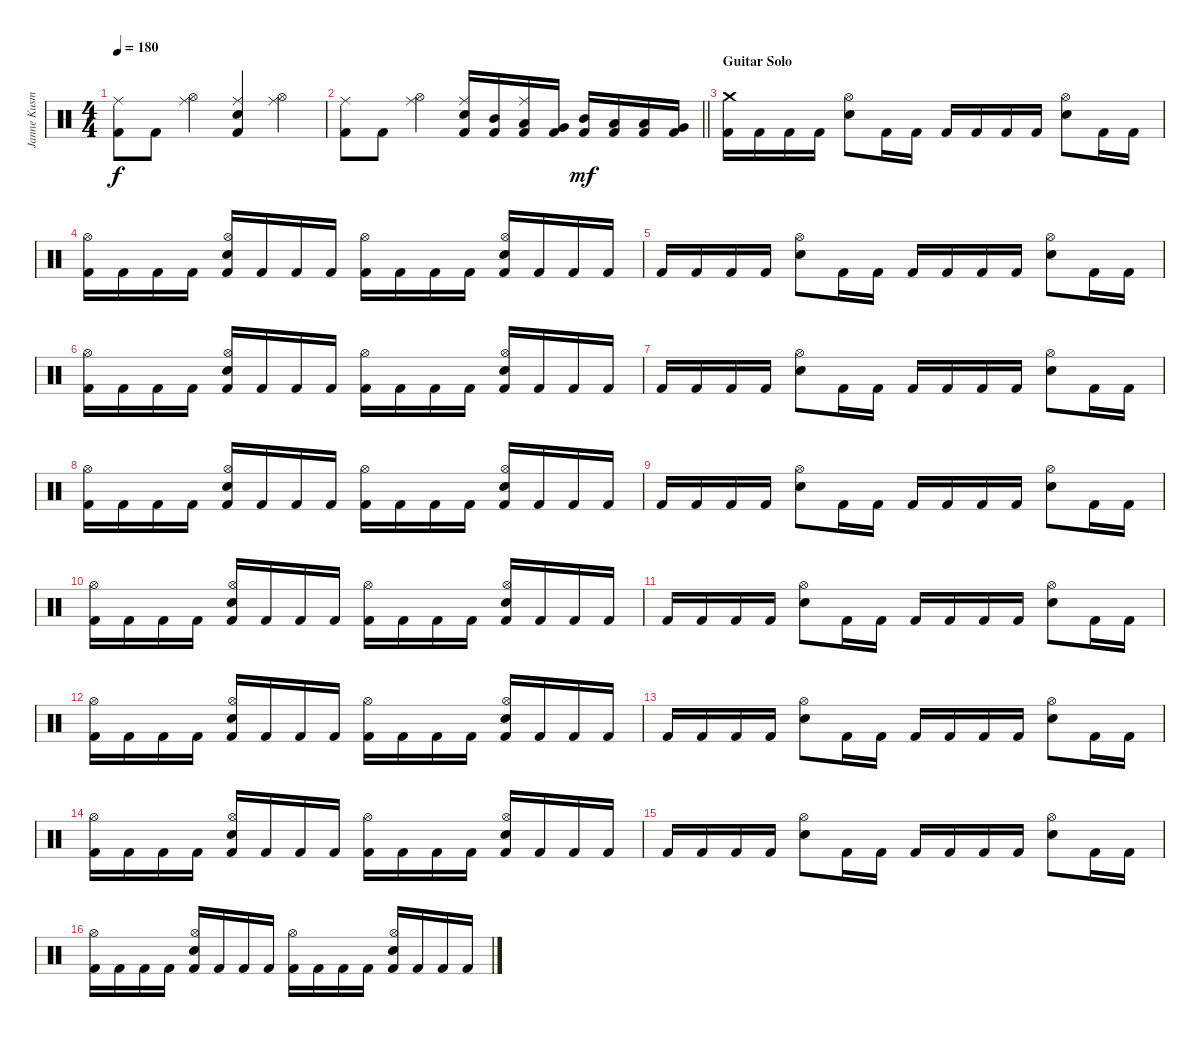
\track ("Janne Kusmin" "Janne Kusm") {instrument percussion}
\staff {score}
\articulation defaults
\ts (4 4)
\tempo 180
\clef neutral
\ks c
("Kick (hit) 2" "Ride (middle)").8{dy f} "Kick (hit) 2".8 ("Hi-Hat (open)" "Ride (middle)").4 ("Kick (hit) 2" "Electric Snare (hit)" "Ride (middle)").4 ("Hi-Hat (open)" "Ride (middle)").4 |
\barLineRight lightlight
("Kick (hit) 2" "Ride (middle)").8 "Kick (hit) 2".8 ("Hi-Hat (open)" "Ride (middle)").4 ("Electric Snare (hit)" "Kick (hit) 2" "Ride (middle)").16 ("Mid Tom (hit)" "Kick (hit) 2").16 ("Low Tom (hit)" "Kick (hit) 2" "Ride (middle)").16 ("Very Low Tom (hit)" "Kick (hit) 2").16 ("Mid Tom (hit)" "Kick (hit) 2").16{dy mf} ("Low Tom (hit)" "Kick (hit) 2").16 ("Low Tom (hit)" "Kick (hit) 2").16 ("Very Low Tom (hit)" "Kick (hit) 2").16 |
\section ("" "Guitar Solo")
("Kick (hit) 2" "Crash medium (hit)").16 "Kick (hit) 2".16 "Kick (hit) 2".16 "Kick (hit) 2".16 ("Electric Snare (hit)" "Hi-Hat (open)").8 "Kick (hit) 2".16 "Kick (hit) 2".16 "Kick (hit) 2".16 "Kick (hit) 2".16 "Kick (hit) 2".16 "Kick (hit) 2".16 ("Electric Snare (hit)" "Hi-Hat (open)").8 "Kick (hit) 2".16 "Kick (hit) 2".16 |
("Kick (hit) 2" "Hi-Hat (open)").16 "Kick (hit) 2".16 "Kick (hit) 2".16 "Kick (hit) 2".16 ("Kick (hit) 2" "Electric Snare (hit)" "Hi-Hat (open)").16 "Kick (hit) 2".16 "Kick (hit) 2".16 "Kick (hit) 2".16 ("Kick (hit) 2" "Hi-Hat (open)").16 "Kick (hit) 2".16 "Kick (hit) 2".16 "Kick (hit) 2".16 ("Kick (hit) 2" "Electric Snare (hit)" "Hi-Hat (open)").16 "Kick (hit) 2".16 "Kick (hit) 2".16 "Kick (hit) 2".16 |
"Kick (hit) 2".16 "Kick (hit) 2".16 "Kick (hit) 2".16 "Kick (hit) 2".16 ("Electric Snare (hit)" "Hi-Hat (open)").8 "Kick (hit) 2".16 "Kick (hit) 2".16 "Kick (hit) 2".16 "Kick (hit) 2".16 "Kick (hit) 2".16 "Kick (hit) 2".16 ("Electric Snare (hit)" "Hi-Hat (open)").8 "Kick (hit) 2".16 "Kick (hit) 2".16 |
("Kick (hit) 2" "Hi-Hat (open)").16 "Kick (hit) 2".16 "Kick (hit) 2".16 "Kick (hit) 2".16 ("Kick (hit) 2" "Electric Snare (hit)" "Hi-Hat (open)").16 "Kick (hit) 2".16 "Kick (hit) 2".16 "Kick (hit) 2".16 ("Kick (hit) 2" "Hi-Hat (open)").16 "Kick (hit) 2".16 "Kick (hit) 2".16 "Kick (hit) 2".16 ("Kick (hit) 2" "Electric Snare (hit)" "Hi-Hat (open)").16 "Kick (hit) 2".16 "Kick (hit) 2".16 "Kick (hit) 2".16 |
"Kick (hit) 2".16 "Kick (hit) 2".16 "Kick (hit) 2".16 "Kick (hit) 2".16 ("Electric Snare (hit)" "Hi-Hat (open)").8 "Kick (hit) 2".16 "Kick (hit) 2".16 "Kick (hit) 2".16 "Kick (hit) 2".16 "Kick (hit) 2".16 "Kick (hit) 2".16 ("Electric Snare (hit)" "Hi-Hat (open)").8 "Kick (hit) 2".16 "Kick (hit) 2".16 |
("Kick (hit) 2" "Hi-Hat (open)").16 "Kick (hit) 2".16 "Kick (hit) 2".16 "Kick (hit) 2".16 ("Kick (hit) 2" "Electric Snare (hit)" "Hi-Hat (open)").16 "Kick (hit) 2".16 "Kick (hit) 2".16 "Kick (hit) 2".16 ("Kick (hit) 2" "Hi-Hat (open)").16 "Kick (hit) 2".16 "Kick (hit) 2".16 "Kick (hit) 2".16 ("Kick (hit) 2" "Electric Snare (hit)" "Hi-Hat (open)").16 "Kick (hit) 2".16 "Kick (hit) 2".16 "Kick (hit) 2".16 |
"Kick (hit) 2".16 "Kick (hit) 2".16 "Kick (hit) 2".16 "Kick (hit) 2".16 ("Electric Snare (hit)" "Hi-Hat (open)").8 "Kick (hit) 2".16 "Kick (hit) 2".16 "Kick (hit) 2".16 "Kick (hit) 2".16 "Kick (hit) 2".16 "Kick (hit) 2".16 ("Electric Snare (hit)" "Hi-Hat (open)").8 "Kick (hit) 2".16 "Kick (hit) 2".16 |
("Kick (hit) 2" "Hi-Hat (open)").16 "Kick (hit) 2".16 "Kick (hit) 2".16 "Kick (hit) 2".16 ("Kick (hit) 2" "Electric Snare (hit)" "Hi-Hat (open)").16 "Kick (hit) 2".16 "Kick (hit) 2".16 "Kick (hit) 2".16 ("Kick (hit) 2" "Hi-Hat (open)").16 "Kick (hit) 2".16 "Kick (hit) 2".16 "Kick (hit) 2".16 ("Kick (hit) 2" "Electric Snare (hit)" "Hi-Hat (open)").16 "Kick (hit) 2".16 "Kick (hit) 2".16 "Kick (hit) 2".16 |
"Kick (hit) 2".16 "Kick (hit) 2".16 "Kick (hit) 2".16 "Kick (hit) 2".16 ("Electric Snare (hit)" "Hi-Hat (open)").8 "Kick (hit) 2".16 "Kick (hit) 2".16 "Kick (hit) 2".16 "Kick (hit) 2".16 "Kick (hit) 2".16 "Kick (hit) 2".16 ("Electric Snare (hit)" "Hi-Hat (open)").8 "Kick (hit) 2".16 "Kick (hit) 2".16 |
("Kick (hit) 2" "Hi-Hat (open)").16 "Kick (hit) 2".16 "Kick (hit) 2".16 "Kick (hit) 2".16 ("Kick (hit) 2" "Electric Snare (hit)" "Hi-Hat (open)").16 "Kick (hit) 2".16 "Kick (hit) 2".16 "Kick (hit) 2".16 ("Kick (hit) 2" "Hi-Hat (open)").16 "Kick (hit) 2".16 "Kick (hit) 2".16 "Kick (hit) 2".16 ("Kick (hit) 2" "Electric Snare (hit)" "Hi-Hat (open)").16 "Kick (hit) 2".16 "Kick (hit) 2".16 "Kick (hit) 2".16 |
"Kick (hit) 2".16 "Kick (hit) 2".16 "Kick (hit) 2".16 "Kick (hit) 2".16 ("Electric Snare (hit)" "Hi-Hat (open)").8 "Kick (hit) 2".16 "Kick (hit) 2".16 "Kick (hit) 2".16 "Kick (hit) 2".16 "Kick (hit) 2".16 "Kick (hit) 2".16 ("Electric Snare (hit)" "Hi-Hat (open)").8 "Kick (hit) 2".16 "Kick (hit) 2".16 |
("Kick (hit) 2" "Hi-Hat (open)").16 "Kick (hit) 2".16 "Kick (hit) 2".16 "Kick (hit) 2".16 ("Kick (hit) 2" "Electric Snare (hit)" "Hi-Hat (open)").16 "Kick (hit) 2".16 "Kick (hit) 2".16 "Kick (hit) 2".16 ("Kick (hit) 2" "Hi-Hat (open)").16 "Kick (hit) 2".16 "Kick (hit) 2".16 "Kick (hit) 2".16 ("Kick (hit) 2" "Electric Snare (hit)" "Hi-Hat (open)").16 "Kick (hit) 2".16 "Kick (hit) 2".16 "Kick (hit) 2".16 |
"Kick (hit) 2".16 "Kick (hit) 2".16 "Kick (hit) 2".16 "Kick (hit) 2".16 ("Electric Snare (hit)" "Hi-Hat (open)").8 "Kick (hit) 2".16 "Kick (hit) 2".16 "Kick (hit) 2".16 "Kick (hit) 2".16 "Kick (hit) 2".16 "Kick (hit) 2".16 ("Electric Snare (hit)" "Hi-Hat (open)").8 "Kick (hit) 2".16 "Kick (hit) 2".16 |
("Kick (hit) 2" "Hi-Hat (open)").16 "Kick (hit) 2".16 "Kick (hit) 2".16 "Kick (hit) 2".16 ("Kick (hit) 2" "Electric Snare (hit)" "Hi-Hat (open)").16 "Kick (hit) 2".16 "Kick (hit) 2".16 "Kick (hit) 2".16 ("Kick (hit) 2" "Hi-Hat (open)").16 "Kick (hit) 2".16 "Kick (hit) 2".16 "Kick (hit) 2".16 ("Kick (hit) 2" "Electric Snare (hit)" "Hi-Hat (open)").16 "Kick (hit) 2".16 "Kick (hit) 2".16 "Kick (hit) 2".16
